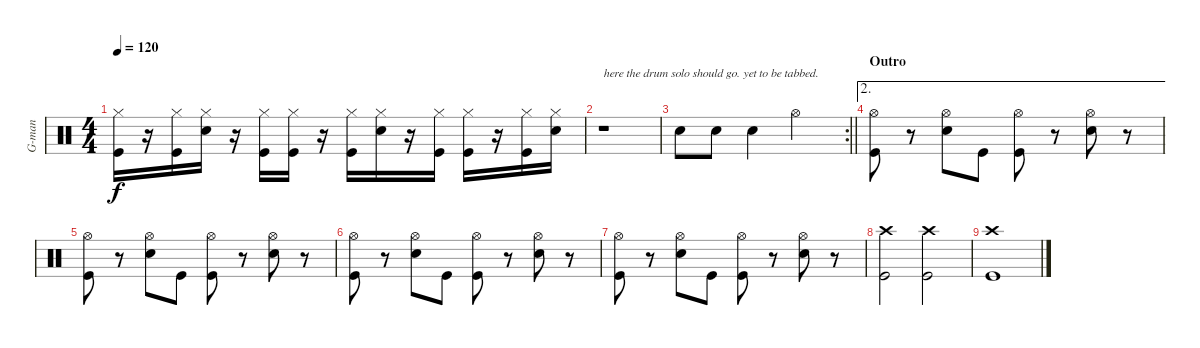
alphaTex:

\track ("G-man" "G-man") {instrument percussion}
\staff {score}
\articulation defaults
\ts (4 4)
\tempo 120
\clef neutral
\ks c
("Hi-Hat (closed)" "Kick (hit)").16{dy f} r.16 ("Hi-Hat (closed)" "Kick (hit)").16 ("Hi-Hat (closed)" "Snare (hit) 2").16 r.16 ("Hi-Hat (closed)" "Kick (hit)").16 ("Hi-Hat (closed)" "Kick (hit)").16 r.16 ("Hi-Hat (closed)" "Kick (hit)").16 ("Hi-Hat (closed)" "Snare (hit) 2").16 r.16 ("Hi-Hat (closed)" "Kick (hit)").16 ("Hi-Hat (closed)" "Kick (hit)").16 r.16 ("Hi-Hat (closed)" "Kick (hit)").16 ("Hi-Hat (closed)" "Snare (hit) 2").16 |
r.1{txt "here the drum solo should go. yet to be tabbed."} |
\rc 2
\barLineRight lightlight "Snare (hit) 2".8 "Snare (hit) 2".8 "Snare (hit) 2".4 "Hi-Hat (open)".2
|
\ae 2
\section ("" "Outro")
("Kick (hit)" "Hi-Hat (open)").8 r.8 ("Snare (hit) 2" "Hi-Hat (open)").8 "Kick (hit)".8 ("Kick (hit)" "Hi-Hat (open)").8 r.8 ("Snare (hit) 2" "Hi-Hat (open)").8 r.8 |
("Kick (hit)" "Hi-Hat (open)").8 r.8 ("Snare (hit) 2" "Hi-Hat (open)").8 "Kick (hit)".8 ("Kick (hit)" "Hi-Hat (open)").8 r.8 ("Snare (hit) 2" "Hi-Hat (open)").8 r.8 |
("Kick (hit)" "Hi-Hat (open)").8 r.8 ("Snare (hit) 2" "Hi-Hat (open)").8 "Kick (hit)".8 ("Kick (hit)" "Hi-Hat (open)").8 r.8 ("Snare (hit) 2" "Hi-Hat (open)").8 r.8 |
("Kick (hit)" "Hi-Hat (open)").8 r.8 ("Snare (hit) 2" "Hi-Hat (open)").8 "Kick (hit)".8 ("Kick (hit)" "Hi-Hat (open)").8 r.8 ("Snare (hit) 2" "Hi-Hat (open)").8 r.8 |
("Kick (hit)" "Crash high (hit)").2 ("Kick (hit)" "Crash high (hit)").2 |
("Kick (hit)" "Crash high (hit)").1
